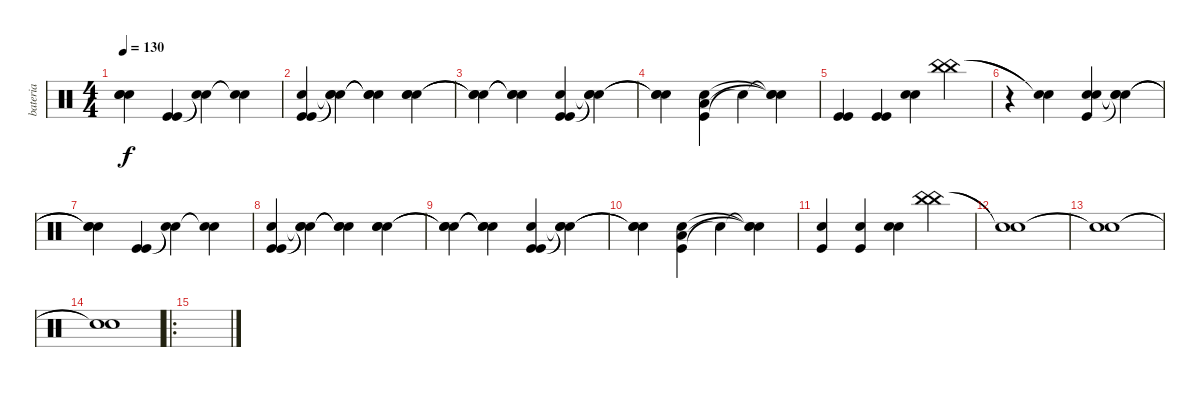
\track ("bateria" "bateria") {instrument percussion}
\staff {score}
\articulation defaults
\ts (4 4)
\tempo 130
\clef neutral
\ks c
("Snare (hit)"{t} "Snare (hit)"{t} "Snare (hit)"{t}).4{dy f} ("Kick (hit)" "Kick (hit)").4 ("Snare (hit)"{t} "Snare (hit)"{t}).4 ("Snare (hit)"{t} "Snare (hit)"{t}).4 |
("Snare (hit) 2" "Kick (hit)" "Kick (hit)").4 ("Snare (hit)"{t} "Snare (hit)"{t} "Snare (hit)"{t}).4 ("Snare (hit)"{t} "Snare (hit)"{t} "Snare (hit)"{t}).4 ("Snare (hit) 2" "Snare (hit) 2" "Snare (hit) 2").4 |
("Snare (hit)"{t} "Snare (hit)"{t} "Snare (hit)"{t}).4 ("Snare (hit)"{t} "Snare (hit)"{t} "Snare (hit)"{t}).4 ("Snare (hit) 2" "Kick (hit)" "Kick (hit)").4 ("Snare (hit)"{t} "Snare (hit)"{t} "Snare (hit)"{t}).4 |
("Snare (hit)"{t} "Snare (hit)"{t} "Snare (hit)"{t}).4 ("Kick (hit)" "Snare (hit) 2" "Low Tom (hit)").4 "Snare (hit)"{t}.4 ("Snare (hit)"{t} "Snare (hit)"{t} "Snare (hit)"{t}).4 |
("Kick (hit)" "Kick (hit)").4 ("Kick (hit)" "Kick (hit)").4 ("Snare (hit) 2" "Snare (hit) 2").4 ("China (hit)" "China (hit)").4 |
r.4 ("Snare (hit)"{t} "Snare (hit)"{t}).4 ("Kick (hit)" "Snare (hit) 2" "Snare (hit) 2").4 ("Snare (hit)"{t} "Snare (hit)"{t} "Snare (hit)"{t}).4 |
("Snare (hit)"{t} "Snare (hit)"{t} "Snare (hit)"{t}).4 ("Kick (hit)" "Kick (hit)").4 ("Snare (hit)"{t} "Snare (hit)"{t}).4 ("Snare (hit)"{t} "Snare (hit)"{t}).4 |
("Snare (hit) 2" "Kick (hit)" "Kick (hit)").4 ("Snare (hit)"{t} "Snare (hit)"{t} "Snare (hit)"{t}).4 ("Snare (hit)"{t} "Snare (hit)"{t} "Snare (hit)"{t}).4 ("Snare (hit) 2" "Snare (hit) 2" "Snare (hit) 2").4 |
("Snare (hit)"{t} "Snare (hit)"{t} "Snare (hit)"{t}).4 ("Snare (hit)"{t} "Snare (hit)"{t} "Snare (hit)"{t}).4 ("Snare (hit) 2" "Kick (hit)" "Kick (hit)").4 ("Snare (hit)"{t} "Snare (hit)"{t} "Snare (hit)"{t}).4 |
("Snare (hit)"{t} "Snare (hit)"{t} "Snare (hit)"{t}).4 ("Kick (hit)" "Snare (hit) 2" "Low Tom (hit)").4 "Snare (hit)"{t}.4 ("Snare (hit)"{t} "Snare (hit)"{t} "Snare (hit)"{t}).4 |
("Snare (hit) 2" "Kick (hit)").4 ("Snare (hit) 2" "Kick (hit)").4 ("Snare (hit) 2" "Snare (hit) 2").4 ("China (hit)" "China (hit)").4 |
("Snare (hit)"{t} "Snare (hit)"{t}).1 |
("Snare (hit)"{t} "Snare (hit)"{t}).1 |
("Snare (hit)"{t} "Snare (hit)"{t}).1 |
\ro
